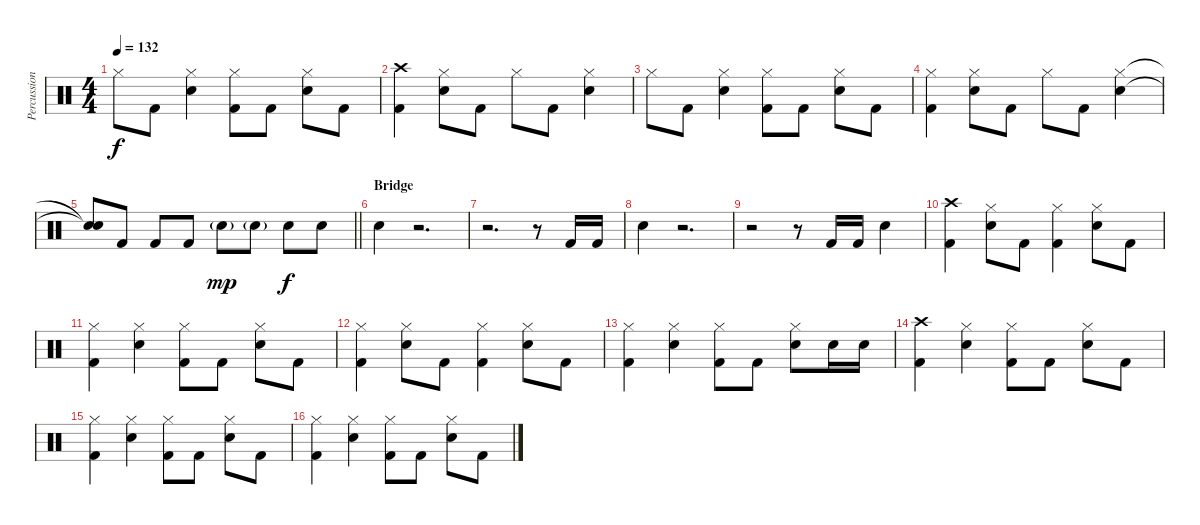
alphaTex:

\track ("Percussion" "Percussion") {instrument percussion}
\staff {score}
\articulation defaults
\ts (4 4)
\tempo 132
\clef neutral
\ks c "Hi-Hat (closed)".8{dy f} "Kick (hit) 2".8
("Hi-Hat (closed)" "Snare (hit) 2").4 ("Hi-Hat (closed)" "Kick (hit) 2").8 "Kick (hit) 2".8 ("Hi-Hat (closed)" "Snare (hit) 2").8 "Kick (hit) 2".8 |
("Crash high (hit)" "Kick (hit) 2").4 ("Hi-Hat (closed)" "Snare (hit) 2").8 "Kick (hit) 2".8 "Hi-Hat (closed)".8 "Kick (hit) 2".8 ("Hi-Hat (closed)" "Snare (hit) 2").4 |
"Hi-Hat (closed)".8 "Kick (hit) 2".8 ("Hi-Hat (closed)" "Snare (hit) 2").4 ("Hi-Hat (closed)" "Kick (hit) 2").8 "Kick (hit) 2".8 ("Hi-Hat (closed)" "Snare (hit) 2").8 "Kick (hit) 2".8 |
("Hi-Hat (closed)" "Kick (hit) 2").4 ("Hi-Hat (closed)" "Snare (hit) 2").8 "Kick (hit) 2".8 "Hi-Hat (closed)".8 "Kick (hit) 2".8 ("Hi-Hat (closed)" "Snare (hit) 2").4 |
\barLineRight lightlight
("Snare (hit)"{t} "Snare (hit)"{t}).8 "Kick (hit) 2".8 "Kick (hit) 2".8 "Kick (hit) 2".8 "Snare (hit) 2"{g}.8{dy mp} "Snare (hit) 2"{g}.8 "Snare (hit) 2".8{dy f} "Snare (hit) 2".8 |
\section ("" "Bridge")
"Snare (hit) 2".4 r.2{d} |
r.2{d} r.8 "Kick (hit) 2".16 "Kick (hit) 2".16 |
"Snare (hit) 2".4 r.2{d} |
r.2 r.8 "Kick (hit) 2".16 "Kick (hit) 2".16 "Snare (hit) 2".4 |
("Crash high (hit)" "Kick (hit) 2").4 ("Hi-Hat (closed)" "Snare (hit) 2").8 "Kick (hit) 2".8 ("Hi-Hat (closed)" "Kick (hit) 2").4 ("Hi-Hat (closed)" "Snare (hit) 2").8 "Kick (hit) 2".8 |
("Hi-Hat (closed)" "Kick (hit) 2").4 ("Hi-Hat (closed)" "Snare (hit) 2").4 ("Hi-Hat (closed)" "Kick (hit) 2").8 "Kick (hit) 2".8 ("Hi-Hat (closed)" "Snare (hit) 2").8 "Kick (hit) 2".8 |
("Hi-Hat (closed)" "Kick (hit) 2").4 ("Hi-Hat (closed)" "Snare (hit) 2").8 "Kick (hit) 2".8 ("Hi-Hat (closed)" "Kick (hit) 2").4 ("Hi-Hat (closed)" "Snare (hit) 2").8 "Kick (hit) 2".8 |
("Hi-Hat (closed)" "Kick (hit) 2").4 ("Hi-Hat (closed)" "Snare (hit) 2").4 ("Hi-Hat (closed)" "Kick (hit) 2").8 "Kick (hit) 2".8 ("Hi-Hat (closed)" "Snare (hit) 2").8 "Snare (hit) 2".16 "Snare (hit) 2".16 |
("Crash high (hit)" "Kick (hit) 2").4 ("Hi-Hat (closed)" "Snare (hit) 2").4 ("Hi-Hat (closed)" "Kick (hit) 2").8 "Kick (hit) 2".8 ("Hi-Hat (closed)" "Snare (hit) 2").8 "Kick (hit) 2".8 |
("Hi-Hat (closed)" "Kick (hit) 2").4 ("Hi-Hat (closed)" "Snare (hit) 2").4 ("Hi-Hat (closed)" "Kick (hit) 2").8 "Kick (hit) 2".8 ("Hi-Hat (closed)" "Snare (hit) 2").8 "Kick (hit) 2".8 |
("Hi-Hat (closed)" "Kick (hit) 2").4 ("Hi-Hat (closed)" "Snare (hit) 2").4 ("Hi-Hat (closed)" "Kick (hit) 2").8 "Kick (hit) 2".8 ("Hi-Hat (closed)" "Snare (hit) 2").8 "Kick (hit) 2".8
